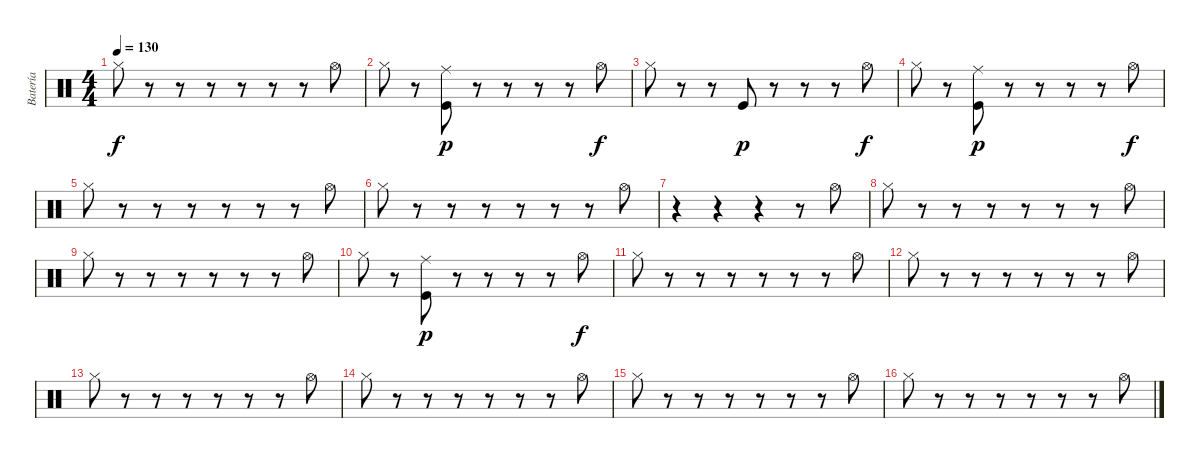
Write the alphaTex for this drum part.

\track ("Batería" "Batería") {instrument percussion}
\staff {score}
\articulation defaults
\ts (4 4)
\tempo 130
\clef neutral
\ks c "Hi-Hat (closed)".8{dy f}
r.8 r.8 r.8 r.8 r.8 r.8 "Hi-Hat (open)".8 |
"Hi-Hat (closed)".8 r.8 ("Ride (middle)" "Kick (hit)").8{dy p} r.8 r.8 r.8 r.8 "Hi-Hat (open)".8{dy f} |
"Hi-Hat (closed)".8 r.8 r.8 "Kick (hit)".8{dy p} r.8 r.8 r.8 "Hi-Hat (open)".8{dy f} |
"Hi-Hat (closed)".8 r.8 ("Ride (middle)" "Kick (hit)").8{dy p} r.8 r.8 r.8 r.8 "Hi-Hat (open)".8{dy f} |
"Hi-Hat (closed)".8 r.8 r.8 r.8 r.8 r.8 r.8 "Hi-Hat (open)".8 |
"Hi-Hat (closed)".8 r.8 r.8 r.8 r.8 r.8 r.8 "Hi-Hat (open)".8 |
r.4 r.4 r.4 r.8 "Hi-Hat (open)".8 |
"Hi-Hat (closed)".8 r.8 r.8 r.8 r.8 r.8 r.8 "Hi-Hat (open)".8 |
"Hi-Hat (closed)".8 r.8 r.8 r.8 r.8 r.8 r.8 "Hi-Hat (open)".8 |
"Hi-Hat (closed)".8 r.8 ("Ride (middle)" "Kick (hit)").8{dy p} r.8 r.8 r.8 r.8 "Hi-Hat (open)".8{dy f} |
"Hi-Hat (closed)".8 r.8 r.8 r.8 r.8 r.8 r.8 "Hi-Hat (open)".8 |
"Hi-Hat (closed)".8 r.8 r.8 r.8 r.8 r.8 r.8 "Hi-Hat (open)".8 |
"Hi-Hat (closed)".8 r.8 r.8 r.8 r.8 r.8 r.8 "Hi-Hat (open)".8 |
"Hi-Hat (closed)".8 r.8 r.8 r.8 r.8 r.8 r.8 "Hi-Hat (open)".8 |
"Hi-Hat (closed)".8 r.8 r.8 r.8 r.8 r.8 r.8 "Hi-Hat (open)".8 |
"Hi-Hat (closed)".8 r.8 r.8 r.8 r.8 r.8 r.8 "Hi-Hat (open)".8
